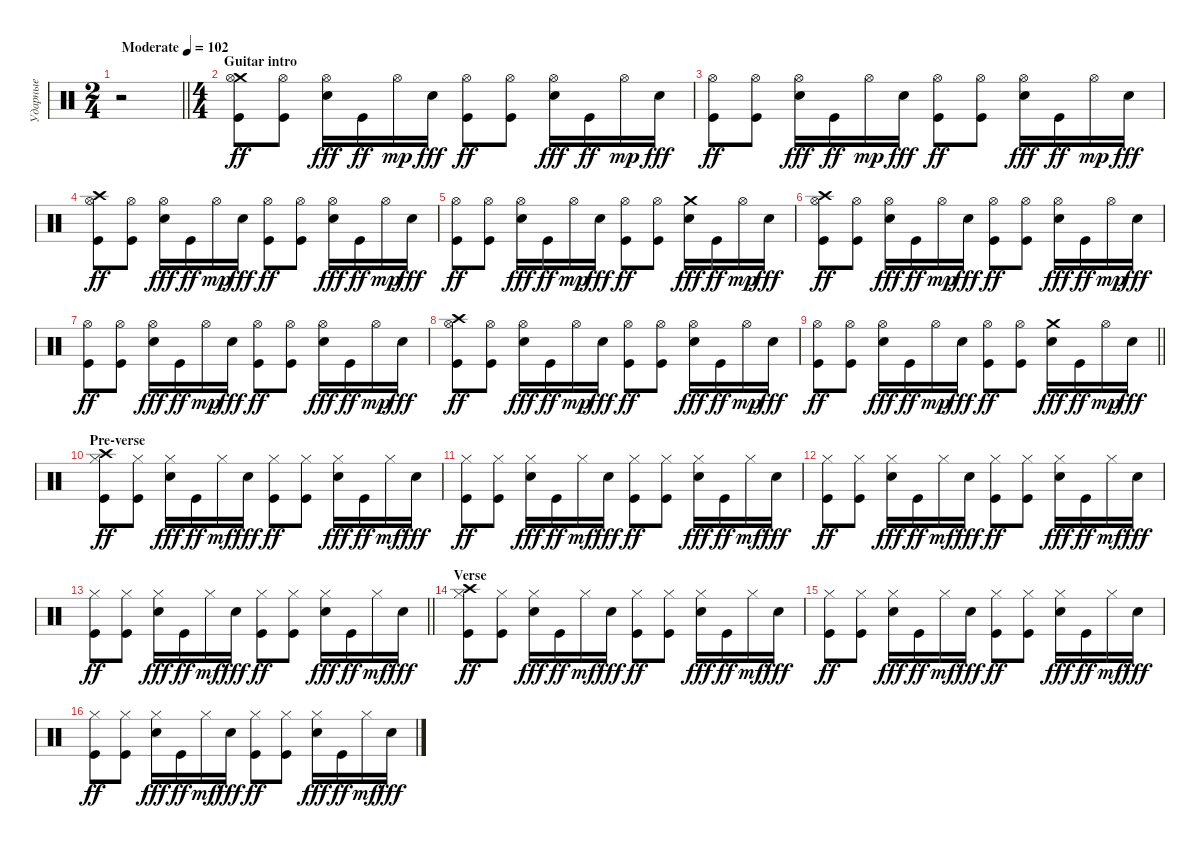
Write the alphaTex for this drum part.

\track ("Ударные" "Ударные") {instrument percussion}
\staff {score}
\articulation defaults
\ts (2 4)
\tempo (102 "Moderate")
\clef neutral
\barLineRight lightlight
\ks c
r.2{dy ff} |
\ts (4 4)
\section ("" "Guitar intro")
("Crash medium (hit)" "Hi-Hat (open)" "Kick (hit)").8 ("Hi-Hat (open)" "Kick (hit)").8 ("Hi-Hat (open)" "Electric Snare (hit)").16{dy fff} "Kick (hit)".16{dy ff} "Hi-Hat (open)".16{dy mp} "Electric Snare (hit)".16{dy fff} ("Hi-Hat (open)" "Kick (hit)").8{dy ff} ("Hi-Hat (open)" "Kick (hit)").8 ("Hi-Hat (open)" "Electric Snare (hit)").16{dy fff} "Kick (hit)".16{dy ff} "Hi-Hat (open)".16{dy mp} "Electric Snare (hit)".16{dy fff} |
("Hi-Hat (open)" "Kick (hit)").8{dy ff} ("Hi-Hat (open)" "Kick (hit)").8 ("Hi-Hat (open)" "Electric Snare (hit)").16{dy fff} "Kick (hit)".16{dy ff} "Hi-Hat (open)".16{dy mp} "Electric Snare (hit)".16{dy fff} ("Hi-Hat (open)" "Kick (hit)").8{dy ff} ("Hi-Hat (open)" "Kick (hit)").8 ("Hi-Hat (open)" "Electric Snare (hit)").16{dy fff} "Kick (hit)".16{dy ff} "Hi-Hat (open)".16{dy mp} "Electric Snare (hit)".16{dy fff} |
("Crash high (hit)" "Hi-Hat (open)" "Kick (hit)").8{dy ff} ("Hi-Hat (open)" "Kick (hit)").8 ("Hi-Hat (open)" "Electric Snare (hit)").16{dy fff} "Kick (hit)".16{dy ff} "Hi-Hat (open)".16{dy mp} "Electric Snare (hit)".16{dy fff} ("Hi-Hat (open)" "Kick (hit)").8{dy ff} ("Hi-Hat (open)" "Kick (hit)").8 ("Hi-Hat (open)" "Electric Snare (hit)").16{dy fff} "Kick (hit)".16{dy ff} "Hi-Hat (open)".16{dy mp} "Electric Snare (hit)".16{dy fff} |
("Hi-Hat (open)" "Kick (hit)").8{dy ff} ("Hi-Hat (open)" "Kick (hit)").8 ("Hi-Hat (open)" "Electric Snare (hit)").16{dy fff} "Kick (hit)".16{dy ff} "Hi-Hat (open)".16{dy mp} "Electric Snare (hit)".16{dy fff} ("Hi-Hat (open)" "Kick (hit)").8{dy ff} ("Hi-Hat (open)" "Kick (hit)").8 ("Crash medium (hit)" "Electric Snare (hit)").16{dy fff} "Kick (hit)".16{dy ff} "Hi-Hat (open)".16{dy mp} "Electric Snare (hit)".16{dy fff} |
("Crash high (hit)" "Hi-Hat (open)" "Kick (hit)").8{dy ff} ("Hi-Hat (open)" "Kick (hit)").8 ("Hi-Hat (open)" "Electric Snare (hit)").16{dy fff} "Kick (hit)".16{dy ff} "Hi-Hat (open)".16{dy mp} "Electric Snare (hit)".16{dy fff} ("Hi-Hat (open)" "Kick (hit)").8{dy ff} ("Hi-Hat (open)" "Kick (hit)").8 ("Hi-Hat (open)" "Electric Snare (hit)").16{dy fff} "Kick (hit)".16{dy ff} "Hi-Hat (open)".16{dy mp} "Electric Snare (hit)".16{dy fff} |
("Hi-Hat (open)" "Kick (hit)").8{dy ff} ("Hi-Hat (open)" "Kick (hit)").8 ("Hi-Hat (open)" "Electric Snare (hit)").16{dy fff} "Kick (hit)".16{dy ff} "Hi-Hat (open)".16{dy mp} "Electric Snare (hit)".16{dy fff} ("Hi-Hat (open)" "Kick (hit)").8{dy ff} ("Hi-Hat (open)" "Kick (hit)").8 ("Hi-Hat (open)" "Electric Snare (hit)").16{dy fff} "Kick (hit)".16{dy ff} "Hi-Hat (open)".16{dy mp} "Electric Snare (hit)".16{dy fff} |
("Crash high (hit)" "Hi-Hat (open)" "Kick (hit)").8{dy ff} ("Hi-Hat (open)" "Kick (hit)").8 ("Hi-Hat (open)" "Electric Snare (hit)").16{dy fff} "Kick (hit)".16{dy ff} "Hi-Hat (open)".16{dy mp} "Electric Snare (hit)".16{dy fff} ("Hi-Hat (open)" "Kick (hit)").8{dy ff} ("Hi-Hat (open)" "Kick (hit)").8 ("Hi-Hat (open)" "Electric Snare (hit)").16{dy fff} "Kick (hit)".16{dy ff} "Hi-Hat (open)".16{dy mp} "Electric Snare (hit)".16{dy fff} |
\barLineRight lightlight
("Hi-Hat (open)" "Kick (hit)").8{dy ff} ("Hi-Hat (open)" "Kick (hit)").8 ("Hi-Hat (open)" "Electric Snare (hit)").16{dy fff} "Kick (hit)".16{dy ff} "Hi-Hat (open)".16{dy mp} "Electric Snare (hit)".16{dy fff} ("Hi-Hat (open)" "Kick (hit)").8{dy ff} ("Hi-Hat (open)" "Kick (hit)").8 ("Crash medium (hit)" "Electric Snare (hit)").16{dy fff} "Kick (hit)".16{dy ff} "Hi-Hat (open)".16{dy mp} "Electric Snare (hit)".16{dy fff} |
\section ("" "Pre-verse")
("Crash high (hit)" "Hi-Hat (closed)" "Kick (hit)").8{dy ff} ("Hi-Hat (closed)" "Kick (hit)").8 ("Hi-Hat (closed)" "Electric Snare (hit)").16{dy fff} "Kick (hit)".16{dy ff} "Hi-Hat (closed)".16{dy mf} "Electric Snare (hit)".16{dy fff} ("Hi-Hat (closed)" "Kick (hit)").8{dy ff} ("Hi-Hat (closed)" "Kick (hit)").8 ("Hi-Hat (closed)" "Electric Snare (hit)").16{dy fff} "Kick (hit)".16{dy ff} "Hi-Hat (closed)".16{dy mf} "Electric Snare (hit)".16{dy fff} |
("Hi-Hat (closed)" "Kick (hit)").8{dy ff} ("Hi-Hat (closed)" "Kick (hit)").8 ("Hi-Hat (closed)" "Electric Snare (hit)").16{dy fff} "Kick (hit)".16{dy ff} "Hi-Hat (closed)".16{dy mf} "Electric Snare (hit)".16{dy fff} ("Hi-Hat (closed)" "Kick (hit)").8{dy ff} ("Hi-Hat (closed)" "Kick (hit)").8 ("Hi-Hat (closed)" "Electric Snare (hit)").16{dy fff} "Kick (hit)".16{dy ff} "Hi-Hat (closed)".16{dy mf} "Electric Snare (hit)".16{dy fff} |
("Hi-Hat (closed)" "Kick (hit)").8{dy ff} ("Hi-Hat (closed)" "Kick (hit)").8 ("Hi-Hat (closed)" "Electric Snare (hit)").16{dy fff} "Kick (hit)".16{dy ff} "Hi-Hat (closed)".16{dy mf} "Electric Snare (hit)".16{dy fff} ("Hi-Hat (closed)" "Kick (hit)").8{dy ff} ("Hi-Hat (closed)" "Kick (hit)").8 ("Hi-Hat (closed)" "Electric Snare (hit)").16{dy fff} "Kick (hit)".16{dy ff} "Hi-Hat (closed)".16{dy mf} "Electric Snare (hit)".16{dy fff} |
\barLineRight lightlight
("Hi-Hat (closed)" "Kick (hit)").8{dy ff} ("Hi-Hat (closed)" "Kick (hit)").8 ("Hi-Hat (closed)" "Electric Snare (hit)").16{dy fff} "Kick (hit)".16{dy ff} "Hi-Hat (closed)".16{dy mf} "Electric Snare (hit)".16{dy fff} ("Hi-Hat (closed)" "Kick (hit)").8{dy ff} ("Hi-Hat (closed)" "Kick (hit)").8 ("Hi-Hat (closed)" "Electric Snare (hit)").16{dy fff} "Kick (hit)".16{dy ff} "Hi-Hat (closed)".16{dy mf} "Electric Snare (hit)".16{dy fff} |
\section ("" "Verse")
("Crash high (hit)" "Hi-Hat (closed)" "Kick (hit)").8{dy ff} ("Hi-Hat (closed)" "Kick (hit)").8 ("Hi-Hat (closed)" "Electric Snare (hit)").16{dy fff} "Kick (hit)".16{dy ff} "Hi-Hat (closed)".16{dy mf} "Electric Snare (hit)".16{dy fff} ("Hi-Hat (closed)" "Kick (hit)").8{dy ff} ("Hi-Hat (closed)" "Kick (hit)").8 ("Hi-Hat (closed)" "Electric Snare (hit)").16{dy fff} "Kick (hit)".16{dy ff} "Hi-Hat (closed)".16{dy mf} "Electric Snare (hit)".16{dy fff} |
("Hi-Hat (closed)" "Kick (hit)").8{dy ff} ("Hi-Hat (closed)" "Kick (hit)").8 ("Hi-Hat (closed)" "Electric Snare (hit)").16{dy fff} "Kick (hit)".16{dy ff} "Hi-Hat (closed)".16{dy mf} "Electric Snare (hit)".16{dy fff} ("Hi-Hat (closed)" "Kick (hit)").8{dy ff} ("Hi-Hat (closed)" "Kick (hit)").8 ("Hi-Hat (closed)" "Electric Snare (hit)").16{dy fff} "Kick (hit)".16{dy ff} "Hi-Hat (closed)".16{dy mf} "Electric Snare (hit)".16{dy fff} |
("Hi-Hat (closed)" "Kick (hit)").8{dy ff} ("Hi-Hat (closed)" "Kick (hit)").8 ("Hi-Hat (closed)" "Electric Snare (hit)").16{dy fff} "Kick (hit)".16{dy ff} "Hi-Hat (closed)".16{dy mf} "Electric Snare (hit)".16{dy fff} ("Hi-Hat (closed)" "Kick (hit)").8{dy ff} ("Hi-Hat (closed)" "Kick (hit)").8 ("Hi-Hat (closed)" "Electric Snare (hit)").16{dy fff} "Kick (hit)".16{dy ff} "Hi-Hat (closed)".16{dy mf} "Electric Snare (hit)".16{dy fff}
